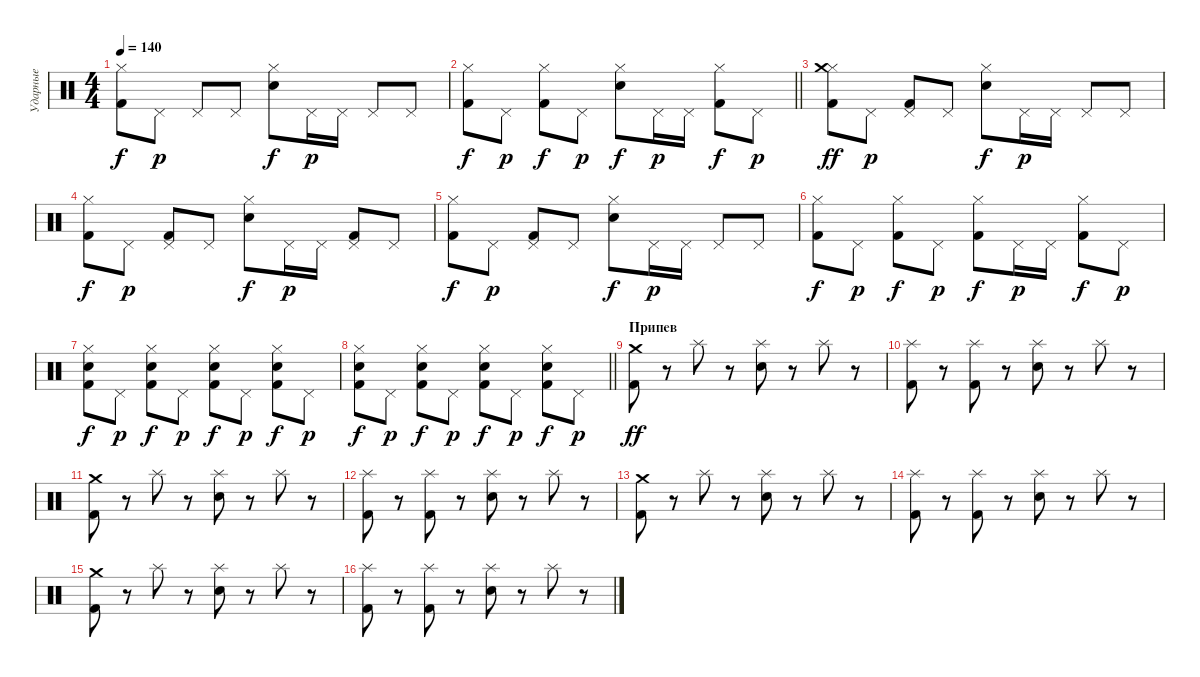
\track ("Ударные" "Ударные") {instrument percussion}
\staff {score}
\articulation defaults
\ts (4 4)
\tempo 140
\clef neutral
\ks c
("Hi-Hat (closed)" "Kick (hit) 2").8{dy f} "Pedal Hi-Hat (hit)".8{dy p} "Pedal Hi-Hat (hit)".8 "Pedal Hi-Hat (hit)".8 ("Snare (hit) 2" "Hi-Hat (closed)").8{dy f} "Pedal Hi-Hat (hit)".16{dy p} "Pedal Hi-Hat (hit)".16 "Pedal Hi-Hat (hit)".8 "Pedal Hi-Hat (hit)".8 |
\barLineRight lightlight
("Kick (hit) 2" "Hi-Hat (closed)").8{dy f} "Pedal Hi-Hat (hit)".8{dy p} ("Kick (hit) 2" "Hi-Hat (closed)").8{dy f} "Pedal Hi-Hat (hit)".8{dy p} ("Hi-Hat (closed)" "Snare (hit) 2").8{dy f} "Pedal Hi-Hat (hit)".16{dy p} "Pedal Hi-Hat (hit)".16 ("Kick (hit) 2" "Hi-Hat (closed)").8{dy f} "Pedal Hi-Hat (hit)".8{dy p} |
\section ("" "")
("Hi-Hat (closed)" "Kick (hit) 2" "Crash medium (hit)").8{dy ff} "Pedal Hi-Hat (hit)".8{dy p} ("Pedal Hi-Hat (hit)" "Kick (hit) 2").8 "Pedal Hi-Hat (hit)".8 ("Snare (hit) 2" "Hi-Hat (closed)").8{dy f} "Pedal Hi-Hat (hit)".16{dy p} "Pedal Hi-Hat (hit)".16 "Pedal Hi-Hat (hit)".8 "Pedal Hi-Hat (hit)".8 |
("Kick (hit) 2" "Hi-Hat (closed)").8{dy f} "Pedal Hi-Hat (hit)".8{dy p} ("Pedal Hi-Hat (hit)" "Kick (hit) 2").8 "Pedal Hi-Hat (hit)".8 ("Snare (hit) 2" "Hi-Hat (closed)").8{dy f} "Pedal Hi-Hat (hit)".16{dy p} "Pedal Hi-Hat (hit)".16 ("Pedal Hi-Hat (hit)" "Kick (hit) 2").8 "Pedal Hi-Hat (hit)".8 |
("Hi-Hat (closed)" "Kick (hit) 2").8{dy f} "Pedal Hi-Hat (hit)".8{dy p} ("Pedal Hi-Hat (hit)" "Kick (hit) 2").8 "Pedal Hi-Hat (hit)".8 ("Snare (hit) 2" "Hi-Hat (closed)").8{dy f} "Pedal Hi-Hat (hit)".16{dy p} "Pedal Hi-Hat (hit)".16 "Pedal Hi-Hat (hit)".8 "Pedal Hi-Hat (hit)".8 |
("Hi-Hat (closed)" "Kick (hit) 2").8{dy f} "Pedal Hi-Hat (hit)".8{dy p} ("Hi-Hat (closed)" "Kick (hit) 2").8{dy f} "Pedal Hi-Hat (hit)".8{dy p} ("Hi-Hat (closed)" "Kick (hit) 2").8{dy f} "Pedal Hi-Hat (hit)".16{dy p} "Pedal Hi-Hat (hit)".16 ("Hi-Hat (closed)" "Kick (hit) 2").8{dy f} "Pedal Hi-Hat (hit)".8{dy p} |
("Snare (hit) 2" "Hi-Hat (closed)" "Kick (hit) 2").8{dy f} "Pedal Hi-Hat (hit)".8{dy p} ("Snare (hit) 2" "Hi-Hat (closed)" "Kick (hit) 2").8{dy f} "Pedal Hi-Hat (hit)".8{dy p} ("Snare (hit) 2" "Hi-Hat (closed)" "Kick (hit) 2").8{dy f} "Pedal Hi-Hat (hit)".8{dy p} ("Snare (hit) 2" "Hi-Hat (closed)" "Kick (hit) 2").8{dy f} "Pedal Hi-Hat (hit)".8{dy p} |
\barLineRight lightlight
("Snare (hit) 2" "Hi-Hat (closed)" "Kick (hit) 2").8{dy f} "Pedal Hi-Hat (hit)".8{dy p} ("Snare (hit) 2" "Hi-Hat (closed)" "Kick (hit) 2").8{dy f} "Pedal Hi-Hat (hit)".8{dy p} ("Snare (hit) 2" "Hi-Hat (closed)" "Kick (hit) 2").8{dy f} "Pedal Hi-Hat (hit)".8{dy p} ("Snare (hit) 2" "Hi-Hat (closed)" "Kick (hit) 2").8{dy f} "Pedal Hi-Hat (hit)".8{dy p} |
\section ("" "Припев")
("Kick (hit) 2" "Crash medium (hit)").8{dy ff} r.8 "Splash (hit)".8 r.8 ("Snare (hit) 2" "Splash (hit)").8 r.8 "Splash (hit)".8 r.8 |
("Kick (hit) 2" "Splash (hit)").8 r.8 ("Kick (hit) 2" "Splash (hit)").8 r.8 ("Snare (hit) 2" "Splash (hit)").8 r.8 "Splash (hit)".8 r.8 |
("Kick (hit) 2" "Crash medium (hit)").8 r.8 "Splash (hit)".8 r.8 ("Snare (hit) 2" "Splash (hit)").8 r.8 "Splash (hit)".8 r.8 |
("Kick (hit) 2" "Splash (hit)").8 r.8 ("Kick (hit) 2" "Splash (hit)").8 r.8 ("Snare (hit) 2" "Splash (hit)").8 r.8 "Splash (hit)".8 r.8 |
("Kick (hit) 2" "Crash medium (hit)").8 r.8 "Splash (hit)".8 r.8 ("Snare (hit) 2" "Splash (hit)").8 r.8 "Splash (hit)".8 r.8 |
("Kick (hit) 2" "Splash (hit)").8 r.8 ("Kick (hit) 2" "Splash (hit)").8 r.8 ("Snare (hit) 2" "Splash (hit)").8 r.8 "Splash (hit)".8 r.8 |
("Kick (hit) 2" "Crash medium (hit)").8 r.8 "Splash (hit)".8 r.8 ("Snare (hit) 2" "Splash (hit)").8 r.8 "Splash (hit)".8 r.8 |
("Kick (hit) 2" "Splash (hit)").8 r.8 ("Kick (hit) 2" "Splash (hit)").8 r.8 ("Snare (hit) 2" "Splash (hit)").8 r.8 "Splash (hit)".8 r.8
